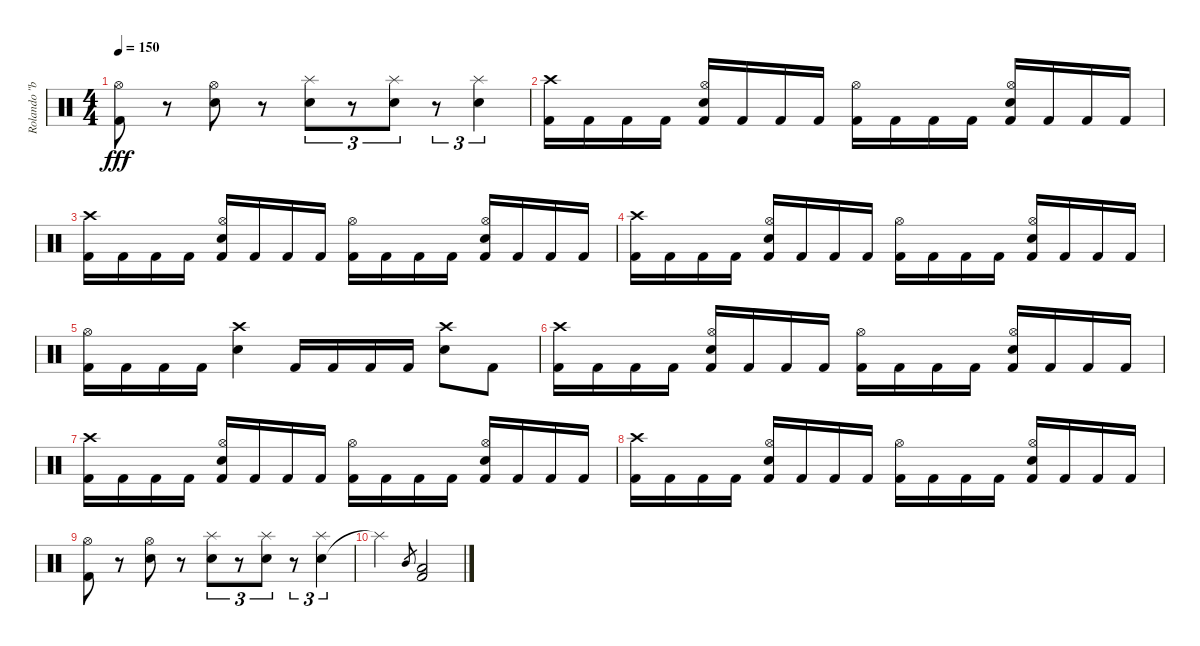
\track ("Rolando \"bataka\"" "Rolando \"b") {instrument percussion}
\staff {score}
\articulation defaults
\ts (4 4)
\tempo 150
\clef neutral
\ks c
("Kick (hit) 2" "Hi-Hat (open)").8{dy fff} r.8 ("Electric Snare (hit)" "Hi-Hat (open)").8 r.8 ("Electric Snare (hit)" "Splash (hit)").8{tu (3 2)} r.8{tu (3 2)} ("Electric Snare (hit)" "Splash (hit)").8{tu (3 2)} r.8{tu (3 2)} ("Electric Snare (hit)" "Splash (hit)").4{tu (3 2)} |
("Kick (hit) 2" "Crash high (hit)").16 "Kick (hit) 2".16 "Kick (hit) 2".16 "Kick (hit) 2".16 ("Kick (hit) 2" "Electric Snare (hit)" "Hi-Hat (open)").16 "Kick (hit) 2".16 "Kick (hit) 2".16 "Kick (hit) 2".16 ("Kick (hit) 2" "Hi-Hat (open)").16 "Kick (hit) 2".16 "Kick (hit) 2".16 "Kick (hit) 2".16 ("Kick (hit) 2" "Electric Snare (hit)" "Hi-Hat (open)").16 "Kick (hit) 2".16 "Kick (hit) 2".16 "Kick (hit) 2".16 |
("Kick (hit) 2" "Crash high (hit)").16 "Kick (hit) 2".16 "Kick (hit) 2".16 "Kick (hit) 2".16 ("Kick (hit) 2" "Electric Snare (hit)" "Hi-Hat (open)").16 "Kick (hit) 2".16 "Kick (hit) 2".16 "Kick (hit) 2".16 ("Kick (hit) 2" "Hi-Hat (open)").16 "Kick (hit) 2".16 "Kick (hit) 2".16 "Kick (hit) 2".16 ("Kick (hit) 2" "Electric Snare (hit)" "Hi-Hat (open)").16 "Kick (hit) 2".16 "Kick (hit) 2".16 "Kick (hit) 2".16 |
("Kick (hit) 2" "Crash high (hit)").16 "Kick (hit) 2".16 "Kick (hit) 2".16 "Kick (hit) 2".16 ("Kick (hit) 2" "Electric Snare (hit)" "Hi-Hat (open)").16 "Kick (hit) 2".16 "Kick (hit) 2".16 "Kick (hit) 2".16 ("Kick (hit) 2" "Hi-Hat (open)").16 "Kick (hit) 2".16 "Kick (hit) 2".16 "Kick (hit) 2".16 ("Kick (hit) 2" "Electric Snare (hit)" "Hi-Hat (open)").16 "Kick (hit) 2".16 "Kick (hit) 2".16 "Kick (hit) 2".16 |
("Kick (hit) 2" "Hi-Hat (open)").16 "Kick (hit) 2".16 "Kick (hit) 2".16 "Kick (hit) 2".16 ("Electric Snare (hit)" "Crash high (hit)").4 "Kick (hit) 2".16 "Kick (hit) 2".16 "Kick (hit) 2".16 "Kick (hit) 2".16 ("Electric Snare (hit)" "Crash high (hit)").8 "Kick (hit) 2".8 |
("Kick (hit) 2" "Crash high (hit)").16 "Kick (hit) 2".16 "Kick (hit) 2".16 "Kick (hit) 2".16 ("Kick (hit) 2" "Electric Snare (hit)" "Hi-Hat (open)").16 "Kick (hit) 2".16 "Kick (hit) 2".16 "Kick (hit) 2".16 ("Kick (hit) 2" "Hi-Hat (open)").16 "Kick (hit) 2".16 "Kick (hit) 2".16 "Kick (hit) 2".16 ("Kick (hit) 2" "Electric Snare (hit)" "Hi-Hat (open)").16 "Kick (hit) 2".16 "Kick (hit) 2".16 "Kick (hit) 2".16 |
("Kick (hit) 2" "Crash high (hit)").16 "Kick (hit) 2".16 "Kick (hit) 2".16 "Kick (hit) 2".16 ("Kick (hit) 2" "Electric Snare (hit)" "Hi-Hat (open)").16 "Kick (hit) 2".16 "Kick (hit) 2".16 "Kick (hit) 2".16 ("Kick (hit) 2" "Hi-Hat (open)").16 "Kick (hit) 2".16 "Kick (hit) 2".16 "Kick (hit) 2".16 ("Kick (hit) 2" "Electric Snare (hit)" "Hi-Hat (open)").16 "Kick (hit) 2".16 "Kick (hit) 2".16 "Kick (hit) 2".16 |
("Kick (hit) 2" "Crash high (hit)").16 "Kick (hit) 2".16 "Kick (hit) 2".16 "Kick (hit) 2".16 ("Kick (hit) 2" "Electric Snare (hit)" "Hi-Hat (open)").16 "Kick (hit) 2".16 "Kick (hit) 2".16 "Kick (hit) 2".16 ("Kick (hit) 2" "Hi-Hat (open)").16 "Kick (hit) 2".16 "Kick (hit) 2".16 "Kick (hit) 2".16 ("Kick (hit) 2" "Electric Snare (hit)" "Hi-Hat (open)").16 "Kick (hit) 2".16 "Kick (hit) 2".16 "Kick (hit) 2".16 |
("Kick (hit) 2" "Hi-Hat (open)").8 r.8 ("Electric Snare (hit)" "Hi-Hat (open)").8 r.8 ("Electric Snare (hit)" "Splash (hit)").8{tu (3 2)} r.8{tu (3 2)} ("Electric Snare (hit)" "Splash (hit)").8{tu (3 2)} r.8{tu (3 2)} ("Electric Snare (hit)" "Splash (hit)").4{tu (3 2)} |
"Splash (hit)"{t}.2 "Mid Tom (hit)".8{gr} ("Low Tom (hit)" "Kick (hit) 2").2
